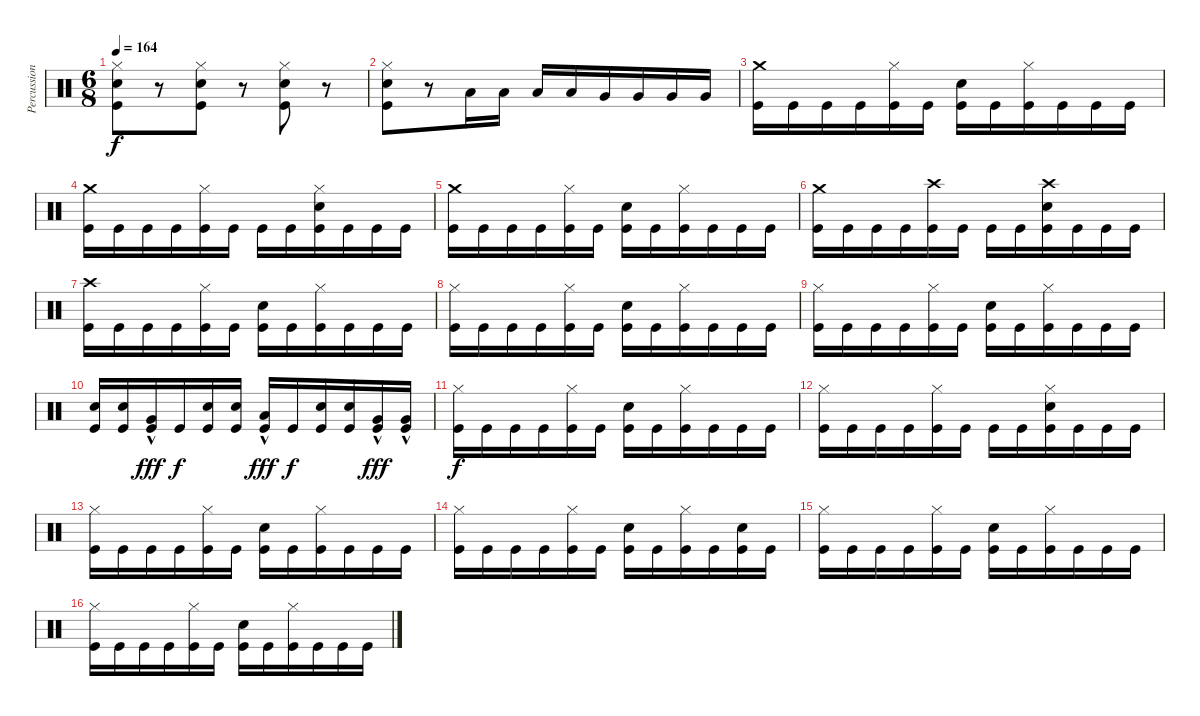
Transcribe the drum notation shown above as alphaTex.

\track ("Percussion" "Percussion") {instrument percussion}
\staff {score}
\articulation defaults
\ts (6 8)
\tempo 164
\clef neutral
\ks c
("Hi-Hat (closed)" "Snare (hit) 2" "Kick (hit)").8{dy f} r.8 ("Hi-Hat (closed)" "Snare (hit) 2" "Kick (hit)").8 r.8 ("Hi-Hat (closed)" "Snare (hit) 2" "Kick (hit)").8 r.8 |
("Hi-Hat (closed)" "Snare (hit) 2" "Kick (hit)").8 r.8 "Low Tom (hit)".16 "Low Tom (hit)".16 "Low Tom (hit)".16 "Low Tom (hit)".16 "Very Low Tom (hit)".16 "Very Low Tom (hit)".16 "Very Low Tom (hit)".16 "Very Low Tom (hit)".16 |
("Crash medium (hit)" "Kick (hit)").16 "Kick (hit)".16 "Kick (hit)".16 "Kick (hit)".16 ("Hi-Hat (closed)" "Kick (hit)").16 "Kick (hit)".16 ("Snare (hit) 2" "Kick (hit)").16 "Kick (hit)".16 ("Hi-Hat (closed)" "Kick (hit)").16 "Kick (hit)".16 "Kick (hit)".16 "Kick (hit)".16 |
("Crash medium (hit)" "Kick (hit)").16 "Kick (hit)".16 "Kick (hit)".16 "Kick (hit)".16 ("Hi-Hat (closed)" "Kick (hit)").16 "Kick (hit)".16 "Kick (hit)".16 "Kick (hit)".16 ("Hi-Hat (closed)" "Snare (hit) 2" "Kick (hit)").16 "Kick (hit)".16 "Kick (hit)".16 "Kick (hit)".16 |
("Crash medium (hit)" "Kick (hit)").16 "Kick (hit)".16 "Kick (hit)".16 "Kick (hit)".16 ("Hi-Hat (closed)" "Kick (hit)").16 "Kick (hit)".16 ("Snare (hit) 2" "Kick (hit)").16 "Kick (hit)".16 ("Hi-Hat (closed)" "Kick (hit)").16 "Kick (hit)".16 "Kick (hit)".16 "Kick (hit)".16 |
("Crash medium (hit)" "Kick (hit)").16 "Kick (hit)".16 "Kick (hit)".16 "Kick (hit)".16 ("Crash high (hit)" "Kick (hit)").16 "Kick (hit)".16 "Kick (hit)".16 "Kick (hit)".16 ("Crash high (hit)" "Snare (hit) 2" "Kick (hit)").16 "Kick (hit)".16 "Kick (hit)".16 "Kick (hit)".16 |
("Crash high (hit)" "Kick (hit)").16 "Kick (hit)".16 "Kick (hit)".16 "Kick (hit)".16 ("Hi-Hat (closed)" "Kick (hit)").16 "Kick (hit)".16 ("Snare (hit) 2" "Kick (hit)").16 "Kick (hit)".16 ("Hi-Hat (closed)" "Kick (hit)").16 "Kick (hit)".16 "Kick (hit)".16 "Kick (hit)".16 |
("Hi-Hat (closed)" "Kick (hit)").16 "Kick (hit)".16 "Kick (hit)".16 "Kick (hit)".16 ("Hi-Hat (closed)" "Kick (hit)").16 "Kick (hit)".16 ("Snare (hit) 2" "Kick (hit)").16 "Kick (hit)".16 ("Hi-Hat (closed)" "Kick (hit)").16 "Kick (hit)".16 "Kick (hit)".16 "Kick (hit)".16 |
("Hi-Hat (closed)" "Kick (hit)").16 "Kick (hit)".16 "Kick (hit)".16 "Kick (hit)".16 ("Hi-Hat (closed)" "Kick (hit)").16 "Kick (hit)".16 ("Snare (hit) 2" "Kick (hit)").16 "Kick (hit)".16 ("Hi-Hat (closed)" "Kick (hit)").16 "Kick (hit)".16 "Kick (hit)".16 "Kick (hit)".16 |
("Snare (hit) 2" "Kick (hit)").16 ("Snare (hit) 2" "Kick (hit)").16 ("Very Low Tom (hit)"{hac} "Kick (hit)").16{dy fff} "Kick (hit)".16{dy f} ("Snare (hit) 2" "Kick (hit)").16 ("Snare (hit) 2" "Kick (hit)").16 ("Low Floor Tom (hit)"{hac} "Kick (hit)").16{dy fff} "Kick (hit)".16{dy f} ("Snare (hit) 2" "Kick (hit)").16 ("Snare (hit) 2" "Kick (hit)").16 ("Very Low Tom (hit)"{hac} "Kick (hit)").16{dy fff} ("Very Low Tom (hit)"{hac} "Kick (hit)").16 |
("Hi-Hat (closed)" "Kick (hit)").16{dy f} "Kick (hit)".16 "Kick (hit)".16 "Kick (hit)".16 ("Hi-Hat (closed)" "Kick (hit)").16 "Kick (hit)".16 ("Snare (hit) 2" "Kick (hit)").16 "Kick (hit)".16 ("Hi-Hat (closed)" "Kick (hit)").16 "Kick (hit)".16 "Kick (hit)".16 "Kick (hit)".16 |
("Hi-Hat (closed)" "Kick (hit)").16 "Kick (hit)".16 "Kick (hit)".16 "Kick (hit)".16 ("Hi-Hat (closed)" "Kick (hit)").16 "Kick (hit)".16 "Kick (hit)".16 "Kick (hit)".16 ("Hi-Hat (closed)" "Snare (hit) 2" "Kick (hit)").16 "Kick (hit)".16 "Kick (hit)".16 "Kick (hit)".16 |
("Hi-Hat (closed)" "Kick (hit)").16 "Kick (hit)".16 "Kick (hit)".16 "Kick (hit)".16 ("Hi-Hat (closed)" "Kick (hit)").16 "Kick (hit)".16 ("Snare (hit) 2" "Kick (hit)").16 "Kick (hit)".16 ("Hi-Hat (closed)" "Kick (hit)").16 "Kick (hit)".16 "Kick (hit)".16 "Kick (hit)".16 |
("Hi-Hat (closed)" "Kick (hit)").16 "Kick (hit)".16 "Kick (hit)".16 "Kick (hit)".16 ("Hi-Hat (closed)" "Kick (hit)").16 "Kick (hit)".16 ("Snare (hit) 2" "Kick (hit)").16 "Kick (hit)".16 ("Hi-Hat (closed)" "Kick (hit)").16 "Kick (hit)".16 ("Snare (hit) 2" "Kick (hit)").16 "Kick (hit)".16 |
("Hi-Hat (closed)" "Kick (hit)").16 "Kick (hit)".16 "Kick (hit)".16 "Kick (hit)".16 ("Hi-Hat (closed)" "Kick (hit)").16 "Kick (hit)".16 ("Snare (hit) 2" "Kick (hit)").16 "Kick (hit)".16 ("Hi-Hat (closed)" "Kick (hit)").16 "Kick (hit)".16 "Kick (hit)".16 "Kick (hit)".16 |
("Hi-Hat (closed)" "Kick (hit)").16 "Kick (hit)".16 "Kick (hit)".16 "Kick (hit)".16 ("Hi-Hat (closed)" "Kick (hit)").16 "Kick (hit)".16 ("Snare (hit) 2" "Kick (hit)").16 "Kick (hit)".16 ("Hi-Hat (closed)" "Kick (hit)").16 "Kick (hit)".16 "Kick (hit)".16 "Kick (hit)".16
